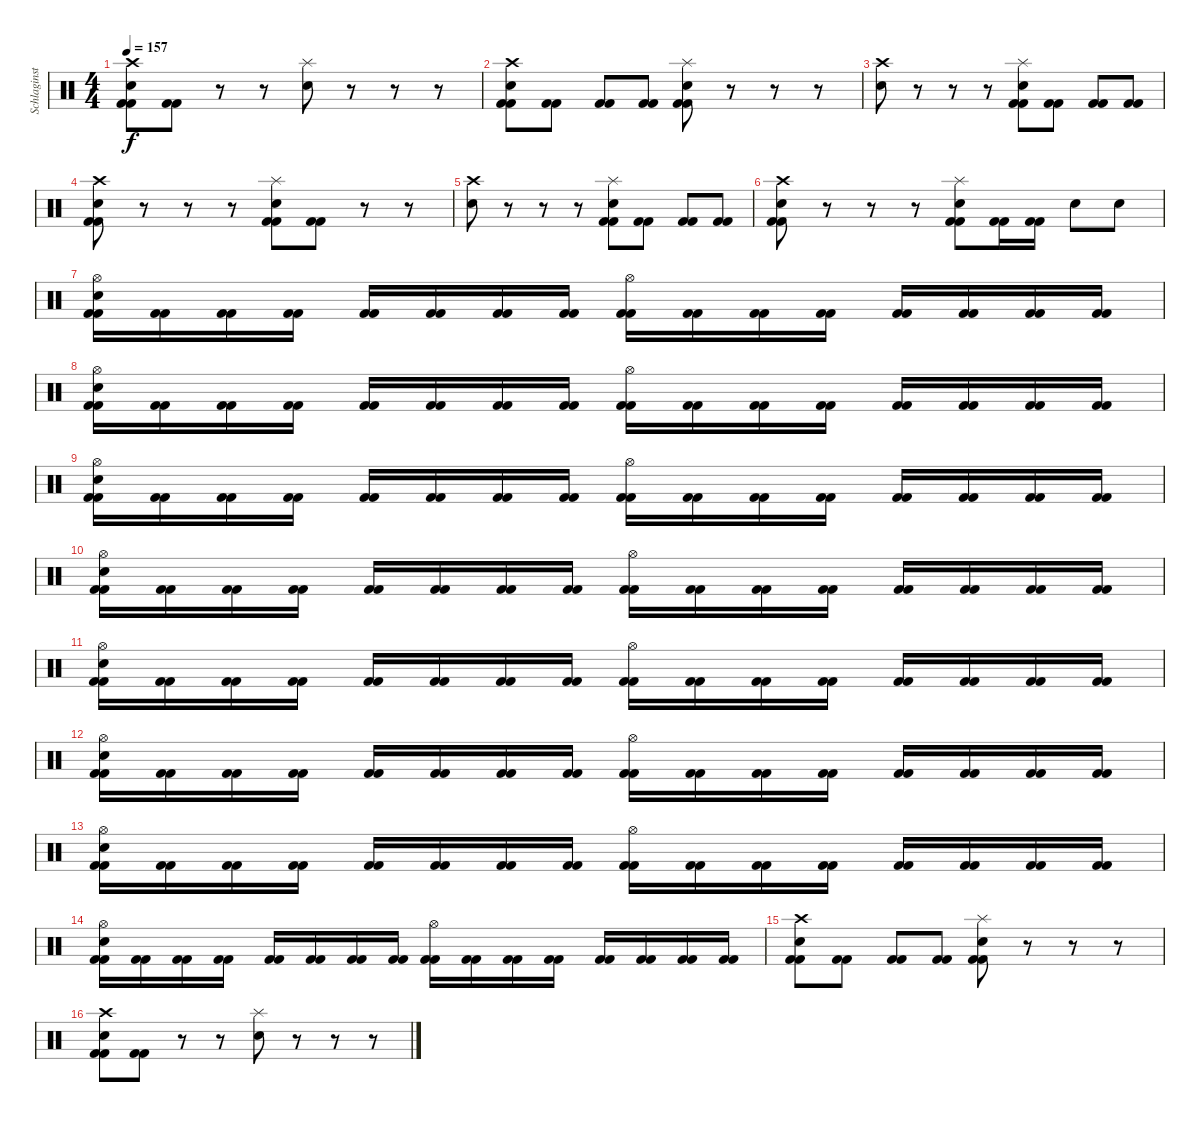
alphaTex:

\track ("Schlaginstrumente - Auswahl" "Schlaginst") {instrument percussion}
\staff {score}
\articulation defaults
\ts (4 4)
\tempo 157
\clef neutral
\ks c
("Crash high (hit)" "Electric Snare (hit)" "Kick (hit) 2" "Kick (hit) 2").8{dy f} ("Kick (hit) 2" "Kick (hit) 2").8 r.8 r.8 ("Splash (hit)" "Electric Snare (hit)").8 r.8 r.8 r.8 |
("Crash high (hit)" "Electric Snare (hit)" "Kick (hit) 2" "Kick (hit) 2").8 ("Kick (hit) 2" "Kick (hit) 2").8 ("Kick (hit) 2" "Kick (hit) 2").8 ("Kick (hit) 2" "Kick (hit) 2").8 ("Splash (hit)" "Electric Snare (hit)" "Kick (hit) 2" "Kick (hit) 2").8 r.8 r.8 r.8 |
("Crash high (hit)" "Electric Snare (hit)").8 r.8 r.8 r.8 ("Splash (hit)" "Electric Snare (hit)" "Kick (hit) 2" "Kick (hit) 2").8 ("Kick (hit) 2" "Kick (hit) 2").8 ("Kick (hit) 2" "Kick (hit) 2").8 ("Kick (hit) 2" "Kick (hit) 2").8 |
("Crash high (hit)" "Electric Snare (hit)" "Kick (hit) 2" "Kick (hit) 2").8 r.8 r.8 r.8 ("Splash (hit)" "Electric Snare (hit)" "Kick (hit) 2" "Kick (hit) 2").8 ("Kick (hit) 2" "Kick (hit) 2").8 r.8 r.8 |
("Crash high (hit)" "Electric Snare (hit)").8 r.8 r.8 r.8 ("Splash (hit)" "Electric Snare (hit)" "Kick (hit) 2" "Kick (hit) 2").8 ("Kick (hit) 2" "Kick (hit) 2").8 ("Kick (hit) 2" "Kick (hit) 2").8 ("Kick (hit) 2" "Kick (hit) 2").8 |
("Crash high (hit)" "Electric Snare (hit)" "Kick (hit) 2" "Kick (hit) 2").8 r.8 r.8 r.8 ("Splash (hit)" "Electric Snare (hit)" "Kick (hit) 2" "Kick (hit) 2").8 ("Kick (hit) 2" "Kick (hit) 2").16 ("Kick (hit) 2" "Kick (hit) 2").16 "Electric Snare (hit)".8 "Electric Snare (hit)".8 |
("Hi-Hat (open)" "Electric Snare (hit)" "Kick (hit) 2" "Kick (hit) 2").16 ("Kick (hit) 2" "Kick (hit) 2").16 ("Kick (hit) 2" "Kick (hit) 2").16 ("Kick (hit) 2" "Kick (hit) 2").16 ("Kick (hit) 2" "Kick (hit) 2").16 ("Kick (hit) 2" "Kick (hit) 2").16 ("Kick (hit) 2" "Kick (hit) 2").16 ("Kick (hit) 2" "Kick (hit) 2").16 ("Hi-Hat (open)" "Kick (hit) 2" "Kick (hit) 2").16 ("Kick (hit) 2" "Kick (hit) 2").16 ("Kick (hit) 2" "Kick (hit) 2").16 ("Kick (hit) 2" "Kick (hit) 2").16 ("Kick (hit) 2" "Kick (hit) 2").16 ("Kick (hit) 2" "Kick (hit) 2").16 ("Kick (hit) 2" "Kick (hit) 2").16 ("Kick (hit) 2" "Kick (hit) 2").16 |
("Hi-Hat (open)" "Electric Snare (hit)" "Kick (hit) 2" "Kick (hit) 2").16 ("Kick (hit) 2" "Kick (hit) 2").16 ("Kick (hit) 2" "Kick (hit) 2").16 ("Kick (hit) 2" "Kick (hit) 2").16 ("Kick (hit) 2" "Kick (hit) 2").16 ("Kick (hit) 2" "Kick (hit) 2").16 ("Kick (hit) 2" "Kick (hit) 2").16 ("Kick (hit) 2" "Kick (hit) 2").16 ("Hi-Hat (open)" "Kick (hit) 2" "Kick (hit) 2").16 ("Kick (hit) 2" "Kick (hit) 2").16 ("Kick (hit) 2" "Kick (hit) 2").16 ("Kick (hit) 2" "Kick (hit) 2").16 ("Kick (hit) 2" "Kick (hit) 2").16 ("Kick (hit) 2" "Kick (hit) 2").16 ("Kick (hit) 2" "Kick (hit) 2").16 ("Kick (hit) 2" "Kick (hit) 2").16 |
("Hi-Hat (open)" "Electric Snare (hit)" "Kick (hit) 2" "Kick (hit) 2").16 ("Kick (hit) 2" "Kick (hit) 2").16 ("Kick (hit) 2" "Kick (hit) 2").16 ("Kick (hit) 2" "Kick (hit) 2").16 ("Kick (hit) 2" "Kick (hit) 2").16 ("Kick (hit) 2" "Kick (hit) 2").16 ("Kick (hit) 2" "Kick (hit) 2").16 ("Kick (hit) 2" "Kick (hit) 2").16 ("Hi-Hat (open)" "Kick (hit) 2" "Kick (hit) 2").16 ("Kick (hit) 2" "Kick (hit) 2").16 ("Kick (hit) 2" "Kick (hit) 2").16 ("Kick (hit) 2" "Kick (hit) 2").16 ("Kick (hit) 2" "Kick (hit) 2").16 ("Kick (hit) 2" "Kick (hit) 2").16 ("Kick (hit) 2" "Kick (hit) 2").16 ("Kick (hit) 2" "Kick (hit) 2").16 |
("Hi-Hat (open)" "Electric Snare (hit)" "Kick (hit) 2" "Kick (hit) 2").16 ("Kick (hit) 2" "Kick (hit) 2").16 ("Kick (hit) 2" "Kick (hit) 2").16 ("Kick (hit) 2" "Kick (hit) 2").16 ("Kick (hit) 2" "Kick (hit) 2").16 ("Kick (hit) 2" "Kick (hit) 2").16 ("Kick (hit) 2" "Kick (hit) 2").16 ("Kick (hit) 2" "Kick (hit) 2").16 ("Hi-Hat (open)" "Kick (hit) 2" "Kick (hit) 2").16 ("Kick (hit) 2" "Kick (hit) 2").16 ("Kick (hit) 2" "Kick (hit) 2").16 ("Kick (hit) 2" "Kick (hit) 2").16 ("Kick (hit) 2" "Kick (hit) 2").16 ("Kick (hit) 2" "Kick (hit) 2").16 ("Kick (hit) 2" "Kick (hit) 2").16 ("Kick (hit) 2" "Kick (hit) 2").16 |
("Hi-Hat (open)" "Electric Snare (hit)" "Kick (hit) 2" "Kick (hit) 2").16 ("Kick (hit) 2" "Kick (hit) 2").16 ("Kick (hit) 2" "Kick (hit) 2").16 ("Kick (hit) 2" "Kick (hit) 2").16 ("Kick (hit) 2" "Kick (hit) 2").16 ("Kick (hit) 2" "Kick (hit) 2").16 ("Kick (hit) 2" "Kick (hit) 2").16 ("Kick (hit) 2" "Kick (hit) 2").16 ("Hi-Hat (open)" "Kick (hit) 2" "Kick (hit) 2").16 ("Kick (hit) 2" "Kick (hit) 2").16 ("Kick (hit) 2" "Kick (hit) 2").16 ("Kick (hit) 2" "Kick (hit) 2").16 ("Kick (hit) 2" "Kick (hit) 2").16 ("Kick (hit) 2" "Kick (hit) 2").16 ("Kick (hit) 2" "Kick (hit) 2").16 ("Kick (hit) 2" "Kick (hit) 2").16 |
("Hi-Hat (open)" "Electric Snare (hit)" "Kick (hit) 2" "Kick (hit) 2").16 ("Kick (hit) 2" "Kick (hit) 2").16 ("Kick (hit) 2" "Kick (hit) 2").16 ("Kick (hit) 2" "Kick (hit) 2").16 ("Kick (hit) 2" "Kick (hit) 2").16 ("Kick (hit) 2" "Kick (hit) 2").16 ("Kick (hit) 2" "Kick (hit) 2").16 ("Kick (hit) 2" "Kick (hit) 2").16 ("Hi-Hat (open)" "Kick (hit) 2" "Kick (hit) 2").16 ("Kick (hit) 2" "Kick (hit) 2").16 ("Kick (hit) 2" "Kick (hit) 2").16 ("Kick (hit) 2" "Kick (hit) 2").16 ("Kick (hit) 2" "Kick (hit) 2").16 ("Kick (hit) 2" "Kick (hit) 2").16 ("Kick (hit) 2" "Kick (hit) 2").16 ("Kick (hit) 2" "Kick (hit) 2").16 |
("Hi-Hat (open)" "Electric Snare (hit)" "Kick (hit) 2" "Kick (hit) 2").16 ("Kick (hit) 2" "Kick (hit) 2").16 ("Kick (hit) 2" "Kick (hit) 2").16 ("Kick (hit) 2" "Kick (hit) 2").16 ("Kick (hit) 2" "Kick (hit) 2").16 ("Kick (hit) 2" "Kick (hit) 2").16 ("Kick (hit) 2" "Kick (hit) 2").16 ("Kick (hit) 2" "Kick (hit) 2").16 ("Hi-Hat (open)" "Kick (hit) 2" "Kick (hit) 2").16 ("Kick (hit) 2" "Kick (hit) 2").16 ("Kick (hit) 2" "Kick (hit) 2").16 ("Kick (hit) 2" "Kick (hit) 2").16 ("Kick (hit) 2" "Kick (hit) 2").16 ("Kick (hit) 2" "Kick (hit) 2").16 ("Kick (hit) 2" "Kick (hit) 2").16 ("Kick (hit) 2" "Kick (hit) 2").16 |
("Hi-Hat (open)" "Electric Snare (hit)" "Kick (hit) 2" "Kick (hit) 2").16 ("Kick (hit) 2" "Kick (hit) 2").16 ("Kick (hit) 2" "Kick (hit) 2").16 ("Kick (hit) 2" "Kick (hit) 2").16 ("Kick (hit) 2" "Kick (hit) 2").16 ("Kick (hit) 2" "Kick (hit) 2").16 ("Kick (hit) 2" "Kick (hit) 2").16 ("Kick (hit) 2" "Kick (hit) 2").16 ("Hi-Hat (open)" "Kick (hit) 2" "Kick (hit) 2").16 ("Kick (hit) 2" "Kick (hit) 2").16 ("Kick (hit) 2" "Kick (hit) 2").16 ("Kick (hit) 2" "Kick (hit) 2").16 ("Kick (hit) 2" "Kick (hit) 2").16 ("Kick (hit) 2" "Kick (hit) 2").16 ("Kick (hit) 2" "Kick (hit) 2").16 ("Kick (hit) 2" "Kick (hit) 2").16 |
("Crash high (hit)" "Electric Snare (hit)" "Kick (hit) 2" "Kick (hit) 2").8 ("Kick (hit) 2" "Kick (hit) 2").8 ("Kick (hit) 2" "Kick (hit) 2").8 ("Kick (hit) 2" "Kick (hit) 2").8 ("Splash (hit)" "Electric Snare (hit)" "Kick (hit) 2" "Kick (hit) 2").8 r.8 r.8 r.8 |
("Crash high (hit)" "Electric Snare (hit)" "Kick (hit) 2" "Kick (hit) 2").8 ("Kick (hit) 2" "Kick (hit) 2").8 r.8 r.8 ("Splash (hit)" "Electric Snare (hit)").8 r.8 r.8 r.8
